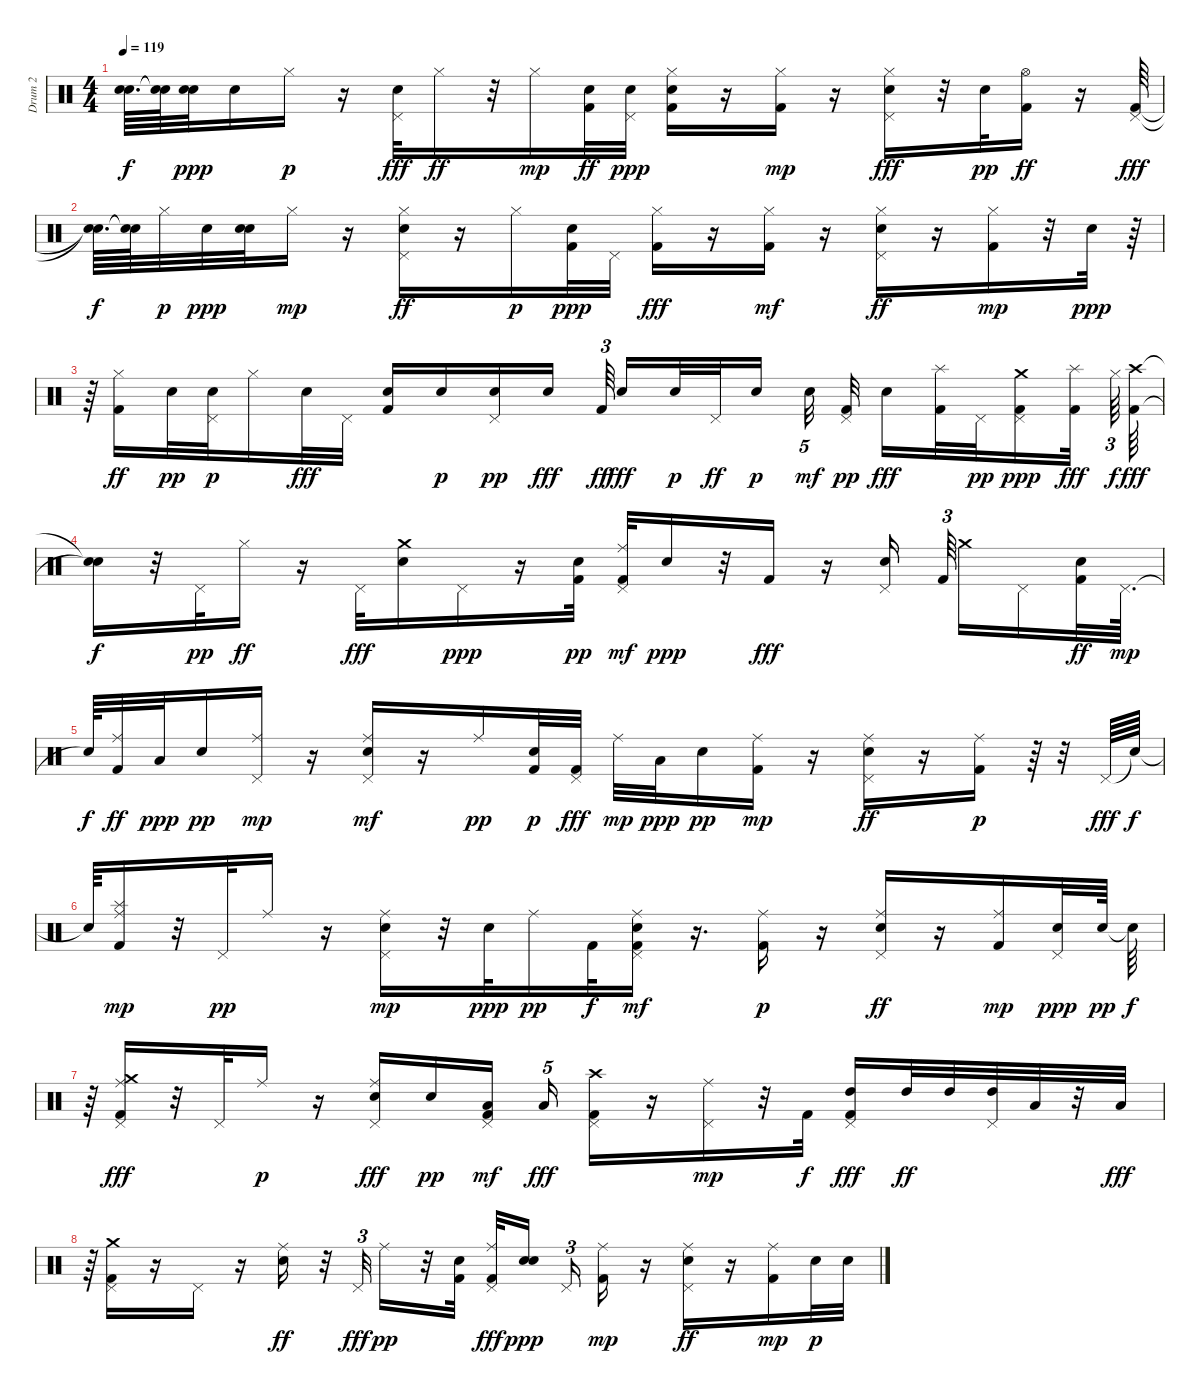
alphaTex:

\track ("Drum 2                          " "Drum 2    ") {instrument percussion}
\staff {score}
\articulation defaults
\ts (4 4)
\tempo 119
\clef neutral
\ks c
("Snare (hit)"{t} "Snare (hit)"{t}).64{d dy f} ("Snare (hit)"{t} "Snare (hit)"{t}).64 ("Snare (hit) 2" "Snare (hit) 2").32{dy ppp} "Snare (hit) 2".16 "Hi-Hat (closed)".16{dy p} r.16 ("Pedal Hi-Hat (hit)" "Snare (hit) 2").32{dy fff} "Hi-Hat (closed)".16{dy ff} r.32 "Hi-Hat (closed)".16{dy mp} ("Snare (hit) 2" "Kick (hit) 2").32{dy ff} ("Snare (hit) 2" "Pedal Hi-Hat (hit)").32{dy ppp} ("Kick (hit) 2" "Hi-Hat (closed)" "Snare (hit) 2").16 r.16 ("Kick (hit) 2" "Hi-Hat (closed)").16{dy mp} r.16 ("Pedal Hi-Hat (hit)" "Snare (hit) 2" "Hi-Hat (closed)").16{dy fff} r.32 "Snare (hit) 2".32{dy pp} ("Kick (hit) 2" "Hi-Hat (open)").16{dy ff} r.16 ("Pedal Hi-Hat (hit)" "Kick (hit) 2").64{dy fff} |
("Snare (hit)"{t} "Snare (hit)"{t}).64{d dy f} ("Snare (hit)"{t} "Snare (hit)"{t}).64 "Hi-Hat (closed)".32{dy p} "Snare (hit) 2".32{dy ppp} ("Snare (hit) 2" "Snare (hit) 2").32 "Hi-Hat (closed)".16{dy mp} r.16 ("Pedal Hi-Hat (hit)" "Snare (hit) 2" "Hi-Hat (closed)").16{dy ff} r.16 "Hi-Hat (closed)".16{dy p} ("Snare (hit) 2" "Kick (hit) 2").32{dy ppp} "Pedal Hi-Hat (hit)".32 ("Hi-Hat (closed)" "Kick (hit) 2").16{dy fff} r.16 ("Kick (hit) 2" "Hi-Hat (closed)").16{dy mf} r.16 ("Pedal Hi-Hat (hit)" "Snare (hit) 2" "Hi-Hat (closed)").16{dy ff} r.16 ("Kick (hit) 2" "Hi-Hat (closed)").16{dy mp} r.32 "Snare (hit) 2".32{dy ppp} r.64 |
r.64 ("Kick (hit) 2" "Hi-Hat (closed)").16{dy ff} "Snare (hit) 2".32{dy pp} ("Snare (hit) 2" "Pedal Hi-Hat (hit)").32{dy p} "Hi-Hat (closed)".16 "Snare (hit) 2".32{dy fff} "Pedal Hi-Hat (hit)".32 ("Kick (hit) 2" "Snare (hit) 2").16 "Snare (hit) 2".16{dy p} ("Pedal Hi-Hat (hit)" "Snare (hit) 2").16{dy pp} "Snare (hit) 2".16{dy fff} "Kick (hit) 2".64{tu (3 2) dy ff beam splitsecondary} "Snare (hit) 2".16{dy fff} "Snare (hit) 2".32{dy p} "Pedal Hi-Hat (hit)".32{dy ff} "Snare (hit) 2".16{dy p beam splitsecondary} "Electric Snare (hit)".32{tu (5 4) dy mf} ("Pedal Hi-Hat (hit)" "Kick (hit) 2").32{dy pp} "Snare (hit) 2".16{dy fff} ("Kick (hit) 2" "Splash (hit)").32 "Pedal Hi-Hat (hit)".32{dy pp} ("Kick (hit) 2" "Crash medium (hit)" "Pedal Hi-Hat (hit)").16{dy ppp} ("Kick (hit) 2" "Splash (hit)").32{dy fff beam splitsecondary} "Hi-Hat (closed)".64{tu (3 2) dy f} ("Crash high (hit)" "Kick (hit) 2").64{dy fff} |
("Snare (hit)"{t} "Snare (hit)"{t}).16{dy f} r.32 "Pedal Hi-Hat (hit)".32{dy pp} "Hi-Hat (closed)".16{dy ff} r.16 "Pedal Hi-Hat (hit)".32{dy fff} ("Snare (hit) 2" "Crash medium (hit)").16 "Pedal Hi-Hat (hit)".16{dy ppp} r.16 ("Kick (hit) 2" "Snare (hit) 2").32{dy pp} ("Pedal Hi-Hat (hit)" "Kick (hit) 2" "Ride (middle)").32{dy mf} "Snare (hit) 2".16{dy ppp} r.32 "Kick (hit) 2".16{dy fff} r.16 ("Pedal Hi-Hat (hit)" "Snare (hit) 2").16{beam splitsecondary} "Kick (hit) 2".64{tu (3 2) beam splitsecondary} "Crash medium (hit)".16 "Pedal Hi-Hat (hit)".16 ("Snare (hit) 2" "Kick (hit) 2").32{dy ff} "Pedal Hi-Hat (hit)".64{d dy mp} |
"Snare (hit)"{t}.64{dy f} ("Kick (hit) 2" "Ride (middle)").32{dy ff} "Low Floor Tom (hit)".32{dy ppp} "Snare (hit) 2".16{dy pp} ("Pedal Hi-Hat (hit)" "Ride (middle)").16{dy mp} r.16 ("Pedal Hi-Hat (hit)" "Snare (hit) 2" "Ride (middle)").16{dy mf} r.16 "Ride (middle)".16{dy pp} ("Kick (hit) 2" "Snare (hit) 2").32{dy p} ("Pedal Hi-Hat (hit)" "Kick (hit) 2").32{dy fff} "Ride (middle)".32{dy mp} "Low Floor Tom (hit)".32{dy ppp} "Snare (hit) 2".16{dy pp} ("Kick (hit) 2" "Ride (middle)").16{dy mp} r.16 ("Pedal Hi-Hat (hit)" "Snare (hit) 2" "Ride (middle)").16{dy ff} r.16 ("Kick (hit) 2" "Ride (middle)").16{dy p} r.64 r.32 "Pedal Hi-Hat (hit)".64{dy fff} "Snare (hit)"{t}.64{dy f} |
"Snare (hit)"{t}.64 ("Kick (hit) 2" "Splash (hit)" "Ride (middle)").16{dy mp} r.32 "Pedal Hi-Hat (hit)".32{dy pp} "Ride (middle)".16 r.16 ("Pedal Hi-Hat (hit)" "Snare (hit) 2" "Ride (middle)").16{dy mp} r.32 "Snare (hit) 2".32{dy ppp} "Ride (middle)".16{dy pp} "Kick (hit) 2".32{dy f} ("Snare (hit) 2" "Pedal Hi-Hat (hit)" "Kick (hit) 2" "Ride (middle)").16{dy mf} r.16{d} ("Kick (hit) 2" "Ride (middle)").16{dy p} r.16 ("Pedal Hi-Hat (hit)" "Snare (hit) 2" "Ride (middle)").16{dy ff} r.16 ("Kick (hit) 2" "Ride (middle)").16{dy mp} ("Snare (hit) 2" "Pedal Hi-Hat (hit)").32{dy ppp} "Snare (hit) 2".64{dy pp} "Snare (hit)"{t}.64{dy f} |
r.64 ("Crash medium (hit)" "Kick (hit) 2" "Pedal Hi-Hat (hit)" "Ride (middle)").16{dy fff} r.32 "Pedal Hi-Hat (hit)".32 "Ride (middle)".16{dy p} r.16 ("Ride (middle)" "Pedal Hi-Hat (hit)" "Snare (hit) 2").16{dy fff} "Snare (hit) 2".16{dy pp} ("Pedal Hi-Hat (hit)" "Kick (hit) 2" "Low Tom (hit)").16{dy mf beam splitsecondary} "Low Tom (hit)".16{tu (5 4) dy fff} ("Pedal Hi-Hat (hit)" "Crash high (hit)" "Kick (hit) 2").16 r.16 ("Pedal Hi-Hat (hit)" "Ride (middle)").16{dy mp} r.32 "Kick (hit) 2".32{dy f} ("Kick (hit) 2" "Pedal Hi-Hat (hit)" "High Tom (hit)").16{dy fff} "High Tom (hit)".32{dy ff} "High Tom (hit)".32 ("Pedal Hi-Hat (hit)" "High Tom (hit)").32 "Low Tom (hit)".32 r.32 "Low Tom (hit)".32{dy fff} |
r.64 ("Pedal Hi-Hat (hit)" "Kick (hit) 2" "Crash medium (hit)").16 r.16 "Pedal Hi-Hat (hit)".16 r.16 ("Electric Snare (hit)" "Ride (middle)").16{dy ff} r.32 "Pedal Hi-Hat (hit)".32{tu (3 2) dy fff} "Ride (middle)".16{dy pp} r.32 ("Kick (hit) 2" "Snare (hit) 2").32 ("Pedal Hi-Hat (hit)" "Ride (middle)" "Kick (hit) 2").32{dy fff} ("Snare (hit) 2" "Snare (hit) 2").16{dy ppp beam splitsecondary} "Pedal Hi-Hat (hit)".16{tu (3 2)} ("Kick (hit) 2" "Ride (middle)").16{dy mp} r.16 ("Pedal Hi-Hat (hit)" "Snare (hit) 2" "Ride (middle)").16{dy ff} r.16 ("Kick (hit) 2" "Ride (middle)").16{dy mp} "Snare (hit) 2".32{dy p} "Snare (hit) 2".32
